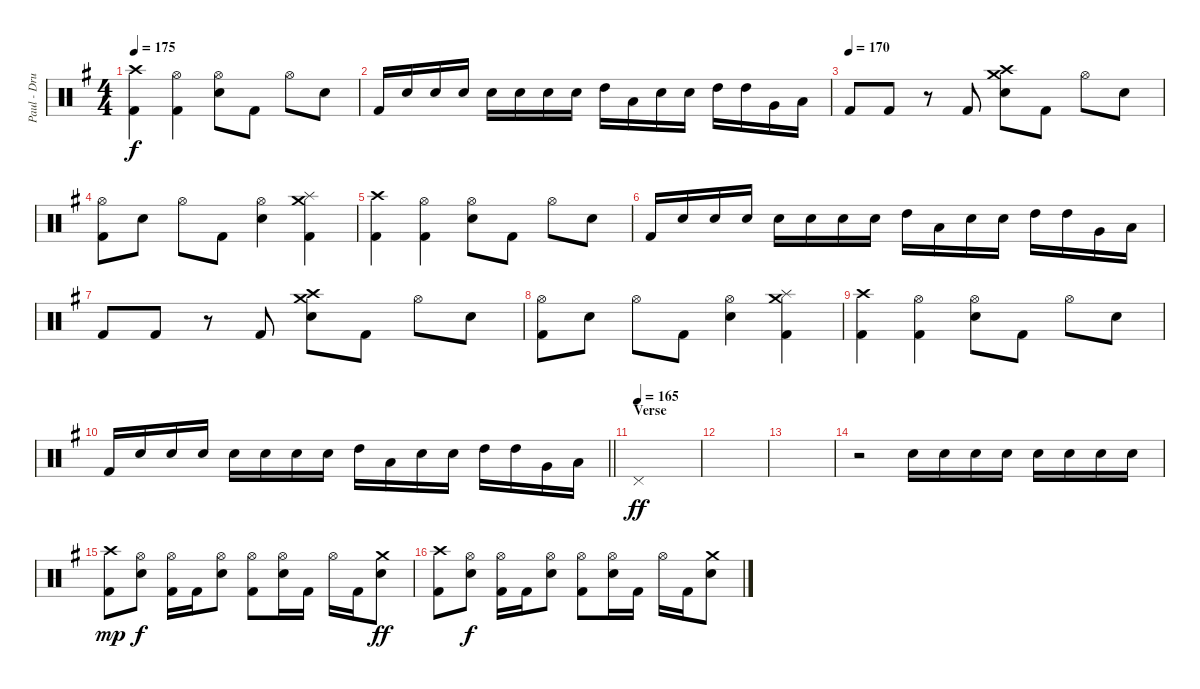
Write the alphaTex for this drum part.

\track ("Paul - Drums" "Paul - Dru") {instrument percussion}
\staff {score}
\articulation defaults
\ts (4 4)
\tempo 175
\clef neutral
\ks g
("Crash high (hit)" "Kick (hit) 2").4{dy f} ("Hi-Hat (open)" "Kick (hit) 2").4 ("Hi-Hat (open)" "Electric Snare (hit)").8 "Kick (hit) 2".8 "Hi-Hat (open)".8 "Electric Snare (hit)".8 |
"Kick (hit) 2".16 "Electric Snare (hit)".16 "Electric Snare (hit)".16 "Electric Snare (hit)".16 "Electric Snare (hit)".16 "Electric Snare (hit)".16 "Electric Snare (hit)".16 "Electric Snare (hit)".16 "High Tom (hit)".16 "Low Tom (hit)".16 "Electric Snare (hit)".16 "Electric Snare (hit)".16 "High Tom (hit)".16 "High Tom (hit)".16 "Very Low Tom (hit)".16 "Low Floor Tom (hit)".16 |
\tempo (170)
"Kick (hit) 2".8 "Kick (hit) 2".8 r.8 "Kick (hit) 2".8 ("Crash high (hit)" "Crash medium (hit)" "Electric Snare (hit)").8 "Kick (hit) 2".8 "Hi-Hat (open)".8 "Electric Snare (hit)".8 |
("Hi-Hat (open)" "Kick (hit) 2").8 "Electric Snare (hit)".8 "Hi-Hat (open)".8 "Kick (hit) 2".8 ("Hi-Hat (open)" "Electric Snare (hit)").4 ("Crash medium (hit)" "Splash (hit)" "Kick (hit) 2").4 |
("Crash high (hit)" "Kick (hit) 2").4 ("Hi-Hat (open)" "Kick (hit) 2").4 ("Hi-Hat (open)" "Electric Snare (hit)").8 "Kick (hit) 2".8 "Hi-Hat (open)".8 "Electric Snare (hit)".8 |
"Kick (hit) 2".16 "Electric Snare (hit)".16 "Electric Snare (hit)".16 "Electric Snare (hit)".16 "Electric Snare (hit)".16 "Electric Snare (hit)".16 "Electric Snare (hit)".16 "Electric Snare (hit)".16 "High Tom (hit)".16 "Low Tom (hit)".16 "Electric Snare (hit)".16 "Electric Snare (hit)".16 "High Tom (hit)".16 "High Tom (hit)".16 "Very Low Tom (hit)".16 "Low Floor Tom (hit)".16 |
"Kick (hit) 2".8 "Kick (hit) 2".8 r.8 "Kick (hit) 2".8 ("Crash high (hit)" "Crash medium (hit)" "Electric Snare (hit)").8 "Kick (hit) 2".8 "Hi-Hat (open)".8 "Electric Snare (hit)".8 |
("Hi-Hat (open)" "Kick (hit) 2").8 "Electric Snare (hit)".8 "Hi-Hat (open)".8 "Kick (hit) 2".8 ("Hi-Hat (open)" "Electric Snare (hit)").4 ("Crash medium (hit)" "Splash (hit)" "Kick (hit) 2").4 |
("Crash high (hit)" "Kick (hit) 2").4 ("Hi-Hat (open)" "Kick (hit) 2").4 ("Hi-Hat (open)" "Electric Snare (hit)").8 "Kick (hit) 2".8 "Hi-Hat (open)".8 "Electric Snare (hit)".8 |
\barLineRight lightlight "Kick (hit) 2".16 "Electric Snare (hit)".16 "Electric Snare (hit)".16 "Electric Snare (hit)".16 "Electric Snare (hit)".16 "Electric Snare (hit)".16 "Electric Snare (hit)".16 "Electric Snare (hit)".16 "High Tom (hit)".16 "Low Tom (hit)".16 "Electric Snare (hit)".16 "Electric Snare (hit)".16 "High Tom (hit)".16 "High Tom (hit)".16 "Very Low Tom (hit)".16 "Low Floor Tom (hit)".16
|
\section ("" "Verse")
\tempo (165)
"Pedal Hi-Hat (hit)".1{dy ff} |
|
|
r.2 "Electric Snare (hit)".16 "Electric Snare (hit)".16 "Electric Snare (hit)".16 "Electric Snare (hit)".16 "Electric Snare (hit)".16 "Electric Snare (hit)".16 "Electric Snare (hit)".16 "Electric Snare (hit)".16 |
("Crash high (hit)" "Kick (hit) 2").8{dy mp} ("Hi-Hat (open)" "Electric Snare (hit)").8{dy f} ("Hi-Hat (open)" "Kick (hit) 2").16 "Kick (hit) 2".16 ("Hi-Hat (open)" "Electric Snare (hit)").8 ("Hi-Hat (open)" "Kick (hit) 2").8 ("Hi-Hat (open)" "Electric Snare (hit)").16 "Kick (hit) 2".16 "Hi-Hat (open)".16 "Kick (hit) 2".16 ("Crash medium (hit)" "Electric Snare (hit)").8{dy ff} |
("Crash high (hit)" "Kick (hit) 2").8 ("Hi-Hat (open)" "Electric Snare (hit)").8{dy f} ("Hi-Hat (open)" "Kick (hit) 2").16 "Kick (hit) 2".16 ("Hi-Hat (open)" "Electric Snare (hit)").8 ("Hi-Hat (open)" "Kick (hit) 2").8 ("Hi-Hat (open)" "Electric Snare (hit)").16 "Kick (hit) 2".16 "Hi-Hat (open)".16 "Kick (hit) 2".16 ("Crash medium (hit)" "Electric Snare (hit)").8
